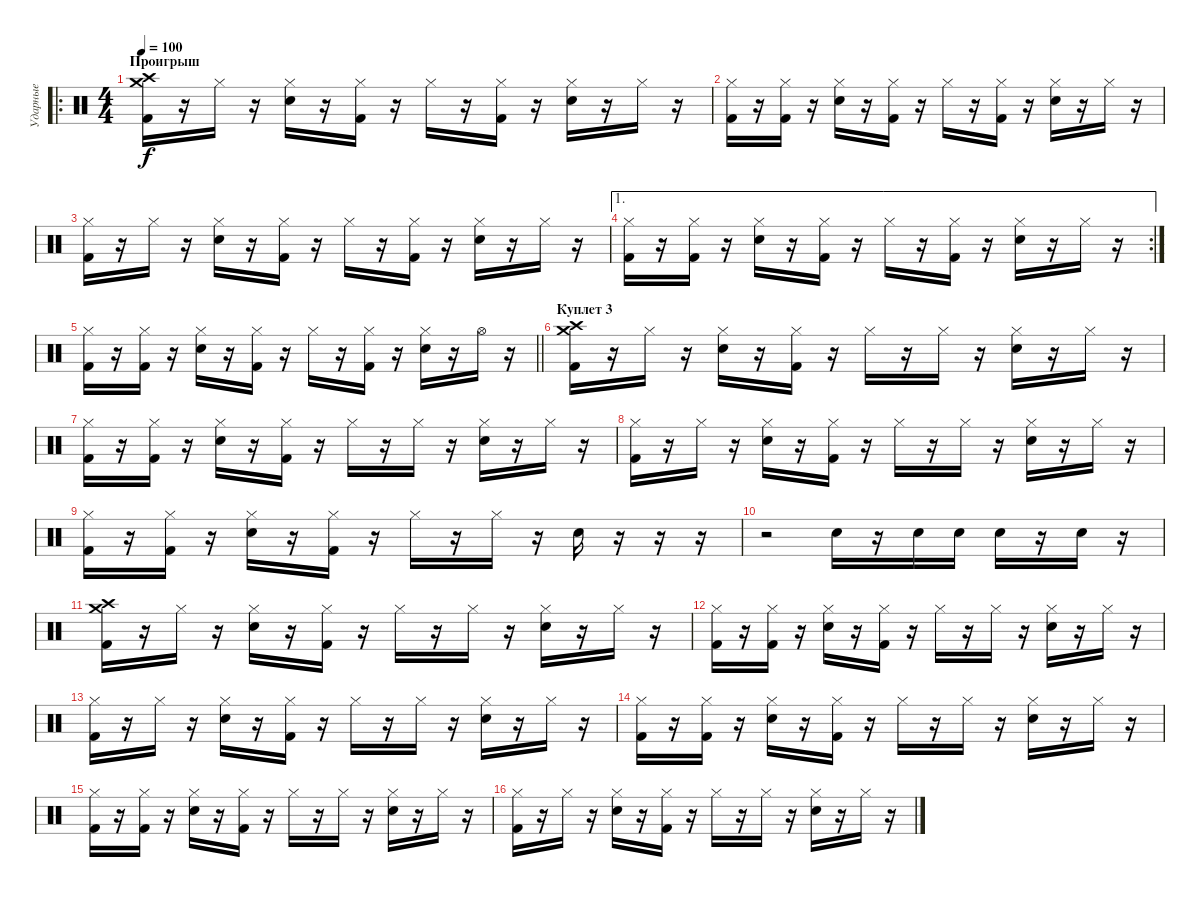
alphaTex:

\track ("Ударные" "Ударные") {instrument percussion}
\staff {score}
\articulation defaults
\ro
\ts (4 4)
\section ("" "Проигрыш")
\tempo 100
\clef neutral
\ks c
("Crash high (hit)" "Crash medium (hit)" "Kick (hit) 2").16{dy f} r.16 "Hi-Hat (closed)".16 r.16 ("Hi-Hat (closed)" "Electric Snare (hit)").16 r.16 ("Hi-Hat (closed)" "Kick (hit) 2").16 r.16 "Hi-Hat (closed)".16 r.16 ("Hi-Hat (closed)" "Kick (hit) 2").16 r.16 ("Hi-Hat (closed)" "Electric Snare (hit)").16 r.16 "Hi-Hat (closed)".16 r.16 |
("Hi-Hat (closed)" "Kick (hit) 2").16 r.16 ("Hi-Hat (closed)" "Kick (hit) 2").16 r.16 ("Hi-Hat (closed)" "Electric Snare (hit)").16 r.16 ("Hi-Hat (closed)" "Kick (hit) 2").16 r.16 "Hi-Hat (closed)".16 r.16 ("Hi-Hat (closed)" "Kick (hit) 2").16 r.16 ("Hi-Hat (closed)" "Electric Snare (hit)").16 r.16 "Hi-Hat (closed)".16 r.16 |
("Hi-Hat (closed)" "Kick (hit) 2").16 r.16 "Hi-Hat (closed)".16 r.16 ("Hi-Hat (closed)" "Electric Snare (hit)").16 r.16 ("Hi-Hat (closed)" "Kick (hit) 2").16 r.16 "Hi-Hat (closed)".16 r.16 ("Hi-Hat (closed)" "Kick (hit) 2").16 r.16 ("Hi-Hat (closed)" "Electric Snare (hit)").16 r.16 "Hi-Hat (closed)".16 r.16 |
\ae 1
\rc 2
("Hi-Hat (closed)" "Kick (hit) 2").16 r.16 ("Hi-Hat (closed)" "Kick (hit) 2").16 r.16 ("Hi-Hat (closed)" "Electric Snare (hit)").16 r.16 ("Hi-Hat (closed)" "Kick (hit) 2").16 r.16 "Hi-Hat (closed)".16 r.16 ("Hi-Hat (closed)" "Kick (hit) 2").16 r.16 ("Hi-Hat (closed)" "Electric Snare (hit)").16 r.16 "Hi-Hat (closed)".16 r.16 |
\barLineRight lightlight
("Hi-Hat (closed)" "Kick (hit) 2").16 r.16 ("Hi-Hat (closed)" "Kick (hit) 2").16 r.16 ("Hi-Hat (closed)" "Electric Snare (hit)").16 r.16 ("Hi-Hat (closed)" "Kick (hit) 2").16 r.16 "Hi-Hat (closed)".16 r.16 ("Hi-Hat (closed)" "Kick (hit) 2").16 r.16 ("Hi-Hat (closed)" "Electric Snare (hit)").16 r.16 "Hi-Hat (open)".16 r.16 |
\section ("" "Куплет 3")
("Crash high (hit)" "Crash medium (hit)" "Kick (hit) 2").16{volume 8} r.16 "Hi-Hat (closed)".16 r.16 ("Hi-Hat (closed)" "Electric Snare (hit)").16 r.16 ("Hi-Hat (closed)" "Kick (hit) 2").16 r.16 "Hi-Hat (closed)".16 r.16 "Hi-Hat (closed)".16 r.16 ("Hi-Hat (closed)" "Electric Snare (hit)").16 r.16 "Hi-Hat (closed)".16 r.16 |
("Hi-Hat (closed)" "Kick (hit) 2").16 r.16 ("Hi-Hat (closed)" "Kick (hit) 2").16 r.16 ("Hi-Hat (closed)" "Electric Snare (hit)").16 r.16 ("Hi-Hat (closed)" "Kick (hit) 2").16 r.16 "Hi-Hat (closed)".16 r.16 "Hi-Hat (closed)".16 r.16 ("Hi-Hat (closed)" "Electric Snare (hit)").16 r.16 "Hi-Hat (closed)".16{volume 16} r.16 |
("Hi-Hat (closed)" "Kick (hit) 2").16 r.16 "Hi-Hat (closed)".16 r.16 ("Hi-Hat (closed)" "Electric Snare (hit)").16 r.16 ("Hi-Hat (closed)" "Kick (hit) 2").16 r.16 "Hi-Hat (closed)".16 r.16 "Hi-Hat (closed)".16 r.16 ("Hi-Hat (closed)" "Electric Snare (hit)").16 r.16 "Hi-Hat (closed)".16 r.16 |
("Hi-Hat (closed)" "Kick (hit) 2").16 r.16 ("Hi-Hat (closed)" "Kick (hit) 2").16 r.16 ("Hi-Hat (closed)" "Electric Snare (hit)").16 r.16 ("Hi-Hat (closed)" "Kick (hit) 2").16 r.16 "Hi-Hat (closed)".16 r.16 "Hi-Hat (closed)".16 r.16 "Electric Snare (hit)".16 r.16 r.16 r.16 |
r.2 "Electric Snare (hit)".16 r.16 "Electric Snare (hit)".16 "Electric Snare (hit)".16 "Electric Snare (hit)".16 r.16 "Electric Snare (hit)".16 r.16 |
("Crash high (hit)" "Crash medium (hit)" "Kick (hit) 2").16 r.16 "Hi-Hat (closed)".16 r.16 ("Hi-Hat (closed)" "Electric Snare (hit)").16 r.16 ("Hi-Hat (closed)" "Kick (hit) 2").16 r.16 "Hi-Hat (closed)".16 r.16 "Hi-Hat (closed)".16 r.16 ("Hi-Hat (closed)" "Electric Snare (hit)").16 r.16 "Hi-Hat (closed)".16 r.16 |
("Hi-Hat (closed)" "Kick (hit) 2").16 r.16 ("Hi-Hat (closed)" "Kick (hit) 2").16 r.16 ("Hi-Hat (closed)" "Electric Snare (hit)").16 r.16 ("Hi-Hat (closed)" "Kick (hit) 2").16 r.16 "Hi-Hat (closed)".16 r.16 "Hi-Hat (closed)".16 r.16 ("Hi-Hat (closed)" "Electric Snare (hit)").16 r.16 "Hi-Hat (closed)".16 r.16 |
("Hi-Hat (closed)" "Kick (hit) 2").16 r.16 "Hi-Hat (closed)".16 r.16 ("Hi-Hat (closed)" "Electric Snare (hit)").16 r.16 ("Hi-Hat (closed)" "Kick (hit) 2").16 r.16 "Hi-Hat (closed)".16 r.16 "Hi-Hat (closed)".16 r.16 ("Hi-Hat (closed)" "Electric Snare (hit)").16 r.16 "Hi-Hat (closed)".16 r.16 |
("Hi-Hat (closed)" "Kick (hit) 2").16 r.16 ("Hi-Hat (closed)" "Kick (hit) 2").16 r.16 ("Hi-Hat (closed)" "Electric Snare (hit)").16 r.16 ("Hi-Hat (closed)" "Kick (hit) 2").16 r.16 "Hi-Hat (closed)".16 r.16 "Hi-Hat (closed)".16 r.16 ("Hi-Hat (closed)" "Electric Snare (hit)").16 r.16 "Hi-Hat (closed)".16 r.16 |
("Hi-Hat (closed)" "Kick (hit) 2").16 r.16 ("Hi-Hat (closed)" "Kick (hit) 2").16 r.16 ("Hi-Hat (closed)" "Electric Snare (hit)").16 r.16 ("Hi-Hat (closed)" "Kick (hit) 2").16 r.16 "Hi-Hat (closed)".16 r.16 "Hi-Hat (closed)".16 r.16 ("Hi-Hat (closed)" "Electric Snare (hit)").16 r.16 "Hi-Hat (closed)".16 r.16 |
("Hi-Hat (closed)" "Kick (hit) 2").16 r.16 "Hi-Hat (closed)".16 r.16 ("Hi-Hat (closed)" "Electric Snare (hit)").16 r.16 ("Hi-Hat (closed)" "Kick (hit) 2").16 r.16 "Hi-Hat (closed)".16 r.16 "Hi-Hat (closed)".16 r.16 ("Hi-Hat (closed)" "Electric Snare (hit)").16 r.16 "Hi-Hat (closed)".16 r.16
